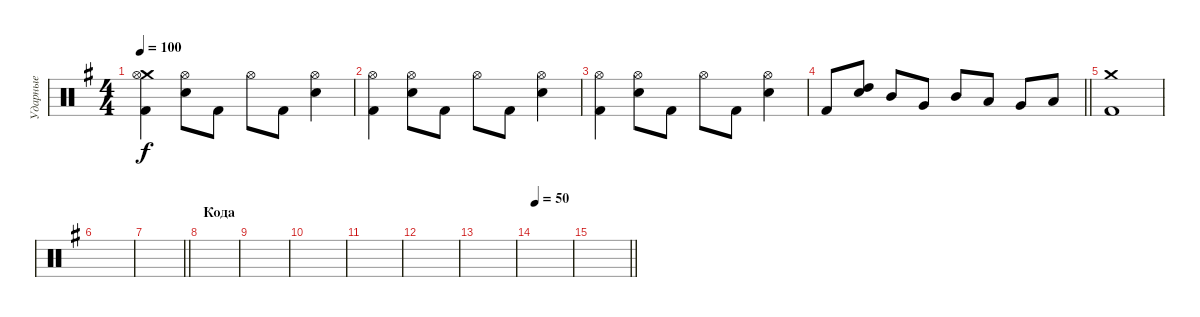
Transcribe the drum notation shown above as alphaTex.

\track ("Ударные" "Ударные") {instrument percussion}
\staff {score}
\articulation defaults
\ts (4 4)
\tempo 100
\clef neutral
\ks eminor
("Crash medium (hit)" "Hi-Hat (open)" "Kick (hit) 2").4{dy f} ("Hi-Hat (open)" "Electric Snare (hit)").8 "Kick (hit) 2".8 "Hi-Hat (open)".8 "Kick (hit) 2".8 ("Hi-Hat (open)" "Electric Snare (hit)").4 |
("Hi-Hat (open)" "Kick (hit) 2").4 ("Hi-Hat (open)" "Electric Snare (hit)").8 "Kick (hit) 2".8 "Hi-Hat (open)".8 "Kick (hit) 2".8 ("Hi-Hat (open)" "Electric Snare (hit)").4 |
("Hi-Hat (open)" "Kick (hit) 2").4 ("Hi-Hat (open)" "Electric Snare (hit)").8 "Kick (hit) 2".8 "Hi-Hat (open)".8 "Kick (hit) 2".8 ("Hi-Hat (open)" "Electric Snare (hit)").4 |
\barLineRight lightlight "Kick (hit) 2".8
("High Tom (hit)" "Electric Snare (hit)").8 "Mid Tom (hit)".8 "Very Low Tom (hit)".8 "Mid Tom (hit)".8 "Low Tom (hit)".8 "Very Low Tom (hit)".8 "Low Floor Tom (hit)".8 |
\section ("" "")
("Crash medium (hit)" "Kick (hit) 2").1 |
|
\barLineRight lightlight
|
\section ("" "Кода")
|
|
|
|
|
|
\tempo 50
|
\barLineRight lightlight
